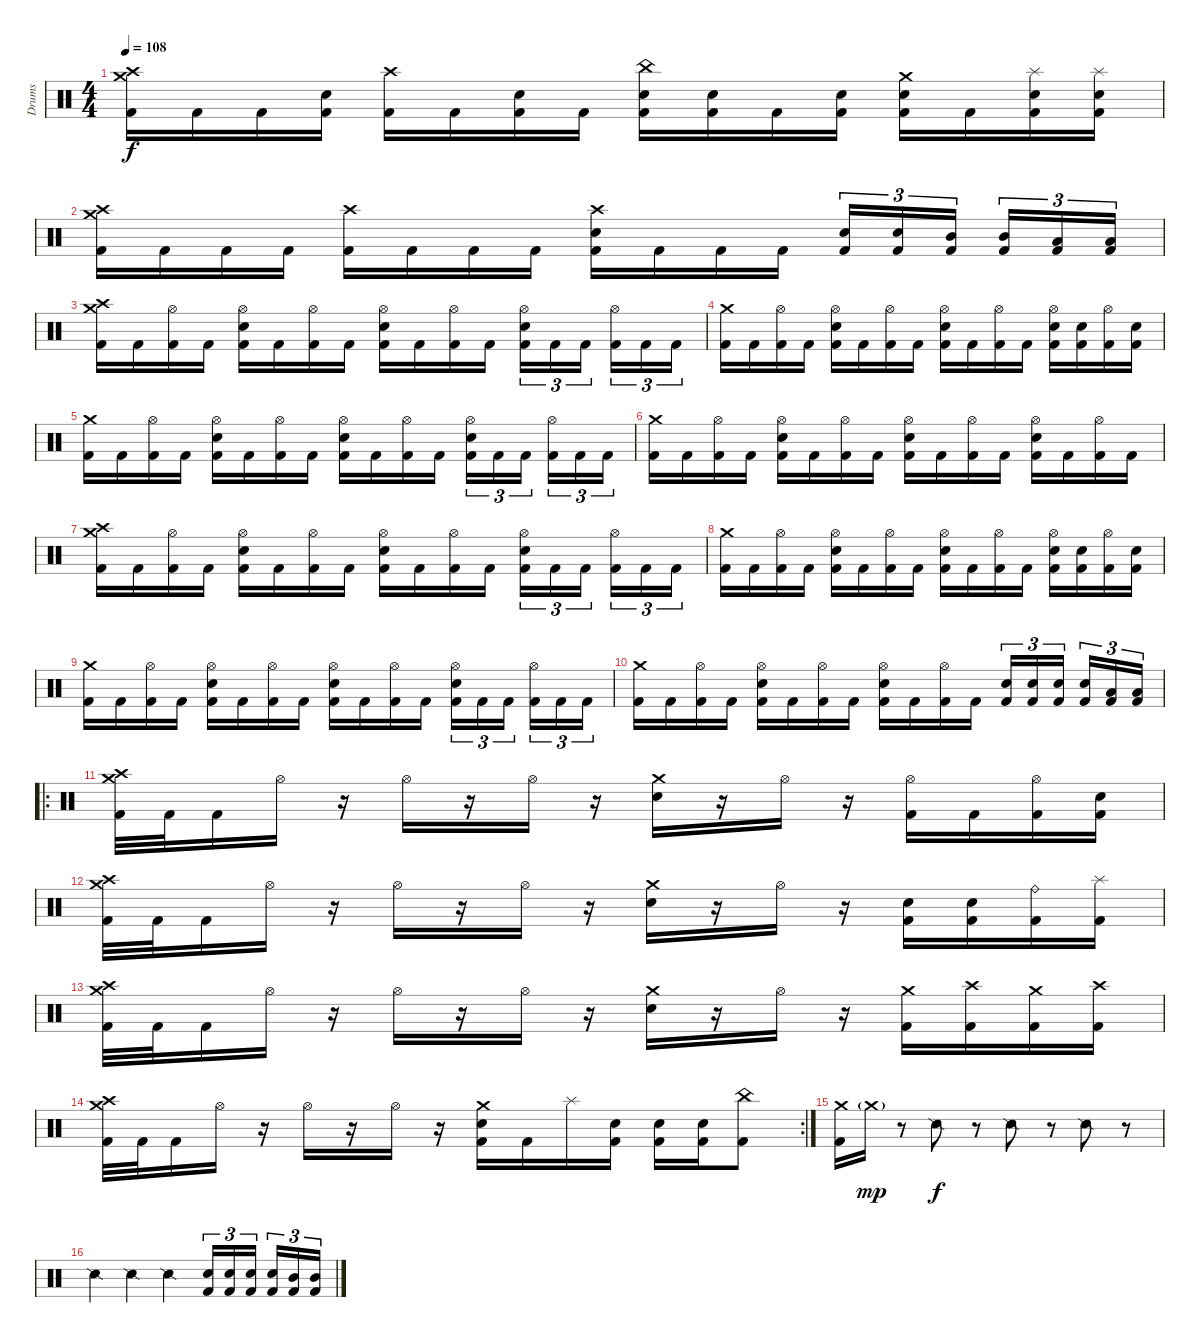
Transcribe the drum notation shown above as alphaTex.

\track ("Drums" "Drums") {instrument percussion}
\staff {score}
\articulation defaults
\ts (4 4)
\tempo 108
\clef neutral
\ks c
("Crash medium (hit)" "Crash high (hit)" "Kick (hit) 2").16{dy f} "Kick (hit) 2".16 "Kick (hit) 2".16 ("Electric Snare (hit)" "Kick (hit) 2").16 ("Crash high (hit)" "Kick (hit) 2").16 "Kick (hit) 2".16 ("Electric Snare (hit)" "Kick (hit) 2").16 "Kick (hit) 2".16 ("China (hit)" "Electric Snare (hit)" "Kick (hit) 2").16 ("Electric Snare (hit)" "Kick (hit) 2").16 "Kick (hit) 2".16 ("Electric Snare (hit)" "Kick (hit) 2").16 ("Crash medium (hit)" "Electric Snare (hit)" "Kick (hit) 2").16 "Kick (hit) 2".16 ("Splash (hit)" "Electric Snare (hit)" "Kick (hit) 2").16 ("Splash (hit)" "Electric Snare (hit)" "Kick (hit) 2").16 |
("Crash high (hit)" "Crash medium (hit)" "Kick (hit) 2").16 "Kick (hit) 2".16 "Kick (hit) 2".16 "Kick (hit) 2".16 ("Crash high (hit)" "Kick (hit) 2").16 "Kick (hit) 2".16 "Kick (hit) 2".16 "Kick (hit) 2".16 ("Crash high (hit)" "Electric Snare (hit)" "Kick (hit) 2").16 "Kick (hit) 2".16 "Kick (hit) 2".16 "Kick (hit) 2".16 ("Electric Snare (hit)" "Kick (hit) 2").16{tu (3 2)} ("Electric Snare (hit)" "Kick (hit) 2").16{tu (3 2)} ("Mid Tom (hit)" "Kick (hit) 2").16{tu (3 2) beam splitsecondary} ("Mid Tom (hit)" "Kick (hit) 2").16{tu (3 2)} ("Low Tom (hit)" "Kick (hit) 2").16{tu (3 2)} ("Low Tom (hit)" "Kick (hit) 2").16{tu (3 2)} |
("Crash medium (hit)" "Crash high (hit)" "Kick (hit) 2").16 "Kick (hit) 2".16 ("Hi-Hat (open)" "Kick (hit) 2").16 "Kick (hit) 2".16 ("Hi-Hat (open)" "Electric Snare (hit)" "Kick (hit) 2").16 "Kick (hit) 2".16 ("Hi-Hat (open)" "Kick (hit) 2").16 "Kick (hit) 2".16 ("Hi-Hat (open)" "Electric Snare (hit)" "Kick (hit) 2").16 "Kick (hit) 2".16 ("Hi-Hat (open)" "Kick (hit) 2").16 "Kick (hit) 2".16 ("Hi-Hat (open)" "Electric Snare (hit)" "Kick (hit) 2").16{tu (3 2)} "Kick (hit) 2".16{tu (3 2)} "Kick (hit) 2".16{tu (3 2) beam splitsecondary} ("Hi-Hat (open)" "Kick (hit) 2").16{tu (3 2)} "Kick (hit) 2".16{tu (3 2)} "Kick (hit) 2".16{tu (3 2)} |
("Crash medium (hit)" "Kick (hit) 2").16 "Kick (hit) 2".16 ("Hi-Hat (open)" "Kick (hit) 2").16 "Kick (hit) 2".16 ("Hi-Hat (open)" "Electric Snare (hit)" "Kick (hit) 2").16 "Kick (hit) 2".16 ("Hi-Hat (open)" "Kick (hit) 2").16 "Kick (hit) 2".16 ("Hi-Hat (open)" "Electric Snare (hit)" "Kick (hit) 2").16 "Kick (hit) 2".16 ("Hi-Hat (open)" "Kick (hit) 2").16 "Kick (hit) 2".16 ("Hi-Hat (open)" "Electric Snare (hit)" "Kick (hit) 2").16 ("Electric Snare (hit)" "Kick (hit) 2").16 ("Hi-Hat (open)" "Kick (hit) 2").16 ("Electric Snare (hit)" "Kick (hit) 2").16 |
("Crash medium (hit)" "Kick (hit) 2").16 "Kick (hit) 2".16 ("Hi-Hat (open)" "Kick (hit) 2").16 "Kick (hit) 2".16 ("Hi-Hat (open)" "Electric Snare (hit)" "Kick (hit) 2").16 "Kick (hit) 2".16 ("Hi-Hat (open)" "Kick (hit) 2").16 "Kick (hit) 2".16 ("Hi-Hat (open)" "Electric Snare (hit)" "Kick (hit) 2").16 "Kick (hit) 2".16 ("Hi-Hat (open)" "Kick (hit) 2").16 "Kick (hit) 2".16 ("Hi-Hat (open)" "Electric Snare (hit)" "Kick (hit) 2").16{tu (3 2)} "Kick (hit) 2".16{tu (3 2)} "Kick (hit) 2".16{tu (3 2) beam splitsecondary} ("Hi-Hat (open)" "Kick (hit) 2").16{tu (3 2)} "Kick (hit) 2".16{tu (3 2)} "Kick (hit) 2".16{tu (3 2)} |
("Crash medium (hit)" "Kick (hit) 2").16 "Kick (hit) 2".16 ("Hi-Hat (open)" "Kick (hit) 2").16 "Kick (hit) 2".16 ("Hi-Hat (open)" "Electric Snare (hit)" "Kick (hit) 2").16 "Kick (hit) 2".16 ("Hi-Hat (open)" "Kick (hit) 2").16 "Kick (hit) 2".16 ("Hi-Hat (open)" "Electric Snare (hit)" "Kick (hit) 2").16 "Kick (hit) 2".16 ("Hi-Hat (open)" "Kick (hit) 2").16 "Kick (hit) 2".16 ("Hi-Hat (open)" "Electric Snare (hit)" "Kick (hit) 2").16 "Kick (hit) 2".16 ("Hi-Hat (open)" "Kick (hit) 2").16 "Kick (hit) 2".16 |
("Crash medium (hit)" "Crash high (hit)" "Kick (hit) 2").16 "Kick (hit) 2".16 ("Hi-Hat (open)" "Kick (hit) 2").16 "Kick (hit) 2".16 ("Hi-Hat (open)" "Electric Snare (hit)" "Kick (hit) 2").16 "Kick (hit) 2".16 ("Hi-Hat (open)" "Kick (hit) 2").16 "Kick (hit) 2".16 ("Hi-Hat (open)" "Electric Snare (hit)" "Kick (hit) 2").16 "Kick (hit) 2".16 ("Hi-Hat (open)" "Kick (hit) 2").16 "Kick (hit) 2".16 ("Hi-Hat (open)" "Electric Snare (hit)" "Kick (hit) 2").16{tu (3 2)} "Kick (hit) 2".16{tu (3 2)} "Kick (hit) 2".16{tu (3 2) beam splitsecondary} ("Hi-Hat (open)" "Kick (hit) 2").16{tu (3 2)} "Kick (hit) 2".16{tu (3 2)} "Kick (hit) 2".16{tu (3 2)} |
("Crash medium (hit)" "Kick (hit) 2").16 "Kick (hit) 2".16 ("Hi-Hat (open)" "Kick (hit) 2").16 "Kick (hit) 2".16 ("Hi-Hat (open)" "Electric Snare (hit)" "Kick (hit) 2").16 "Kick (hit) 2".16 ("Hi-Hat (open)" "Kick (hit) 2").16 "Kick (hit) 2".16 ("Hi-Hat (open)" "Electric Snare (hit)" "Kick (hit) 2").16 "Kick (hit) 2".16 ("Hi-Hat (open)" "Kick (hit) 2").16 "Kick (hit) 2".16 ("Hi-Hat (open)" "Electric Snare (hit)" "Kick (hit) 2").16 ("Electric Snare (hit)" "Kick (hit) 2").16 ("Hi-Hat (open)" "Kick (hit) 2").16 ("Electric Snare (hit)" "Kick (hit) 2").16 |
("Crash medium (hit)" "Kick (hit) 2").16 "Kick (hit) 2".16 ("Hi-Hat (open)" "Kick (hit) 2").16 "Kick (hit) 2".16 ("Hi-Hat (open)" "Electric Snare (hit)" "Kick (hit) 2").16 "Kick (hit) 2".16 ("Hi-Hat (open)" "Kick (hit) 2").16 "Kick (hit) 2".16 ("Hi-Hat (open)" "Electric Snare (hit)" "Kick (hit) 2").16 "Kick (hit) 2".16 ("Hi-Hat (open)" "Kick (hit) 2").16 "Kick (hit) 2".16 ("Hi-Hat (open)" "Electric Snare (hit)" "Kick (hit) 2").16{tu (3 2)} "Kick (hit) 2".16{tu (3 2)} "Kick (hit) 2".16{tu (3 2) beam splitsecondary} ("Hi-Hat (open)" "Kick (hit) 2").16{tu (3 2)} "Kick (hit) 2".16{tu (3 2)} "Kick (hit) 2".16{tu (3 2)} |
("Crash medium (hit)" "Kick (hit) 2").16 "Kick (hit) 2".16 ("Hi-Hat (open)" "Kick (hit) 2").16 "Kick (hit) 2".16 ("Hi-Hat (open)" "Electric Snare (hit)" "Kick (hit) 2").16 "Kick (hit) 2".16 ("Hi-Hat (open)" "Kick (hit) 2").16 "Kick (hit) 2".16 ("Hi-Hat (open)" "Electric Snare (hit)" "Kick (hit) 2").16 "Kick (hit) 2".16 ("Hi-Hat (open)" "Kick (hit) 2").16 "Kick (hit) 2".16 ("Electric Snare (hit)" "Kick (hit) 2").16{tu (3 2)} ("Electric Snare (hit)" "Kick (hit) 2").16{tu (3 2)} ("Electric Snare (hit)" "Kick (hit) 2").16{tu (3 2) beam splitsecondary} ("Electric Snare (hit)" "Kick (hit) 2").16{tu (3 2)} ("Low Tom (hit)" "Kick (hit) 2").16{tu (3 2)} ("Low Tom (hit)" "Kick (hit) 2").16{tu (3 2)} |
\ro
("Crash medium (hit)" "Crash high (hit)" "Kick (hit) 2").32 "Kick (hit) 2".32 "Kick (hit) 2".16 "Hi-Hat (open)".16 r.16 "Hi-Hat (open)".16 r.16 "Hi-Hat (open)".16 r.16 ("Crash medium (hit)" "Electric Snare (hit)").16 r.16 "Hi-Hat (open)".16 r.16 ("Hi-Hat (open)" "Kick (hit) 2").16 "Kick (hit) 2".16 ("Hi-Hat (open)" "Kick (hit) 2").16 ("Electric Snare (hit)" "Kick (hit) 2").16 |
("Crash medium (hit)" "Crash high (hit)" "Kick (hit) 2").32 "Kick (hit) 2".32 "Kick (hit) 2".16 "Hi-Hat (open)".16 r.16 "Hi-Hat (open)".16 r.16 "Hi-Hat (open)".16 r.16 ("Crash medium (hit)" "Electric Snare (hit)").16 r.16 "Hi-Hat (open)".16 r.16 ("Electric Snare (hit)" "Kick (hit) 2").16 ("Electric Snare (hit)" "Kick (hit) 2").16 ("Ride (bell)" "Kick (hit) 2").16 ("Splash (hit)" "Kick (hit) 2").16 |
("Crash medium (hit)" "Crash high (hit)" "Kick (hit) 2").32 "Kick (hit) 2".32 "Kick (hit) 2".16 "Hi-Hat (open)".16 r.16 "Hi-Hat (open)".16 r.16 "Hi-Hat (open)".16 r.16 ("Crash medium (hit)" "Electric Snare (hit)").16 r.16 "Hi-Hat (open)".16 r.16 ("Crash medium (hit)" "Kick (hit) 2").16 ("Crash high (hit)" "Kick (hit) 2").16 ("Crash medium (hit)" "Kick (hit) 2").16 ("Crash high (hit)" "Kick (hit) 2").16 |
\rc 2
("Crash medium (hit)" "Crash high (hit)" "Kick (hit) 2").32 "Kick (hit) 2".32 "Kick (hit) 2".16 "Hi-Hat (open)".16 r.16 "Hi-Hat (open)".16 r.16 "Hi-Hat (open)".16 r.16 ("Crash medium (hit)" "Electric Snare (hit)" "Kick (hit) 2").16 "Kick (hit) 2".16 "Splash (hit)".16 ("Electric Snare (hit)" "Kick (hit) 2").16 ("Electric Snare (hit)" "Kick (hit) 2").16 ("Electric Snare (hit)" "Kick (hit) 2").16 ("China (hit)" "Kick (hit) 2").8 |
("Crash medium (hit)" "Kick (hit) 2").16 "Crash medium (hit)"{g}.16{dy mp} r.8 "Snare (side stick) 2".8{dy f} r.8 "Snare (side stick) 2".8 r.8 "Snare (side stick) 2".8 r.8 |
"Snare (side stick) 2".4 "Snare (side stick) 2".4 "Snare (side stick) 2".4 ("Electric Snare (hit)" "Kick (hit) 2").16{tu (3 2)} ("Electric Snare (hit)" "Kick (hit) 2").16{tu (3 2)} ("Electric Snare (hit)" "Kick (hit) 2").16{tu (3 2) beam splitsecondary} ("Electric Snare (hit)" "Kick (hit) 2").16{tu (3 2)} ("Mid Tom (hit)" "Kick (hit) 2").16{tu (3 2)} ("Mid Tom (hit)" "Kick (hit) 2").16{tu (3 2)}
